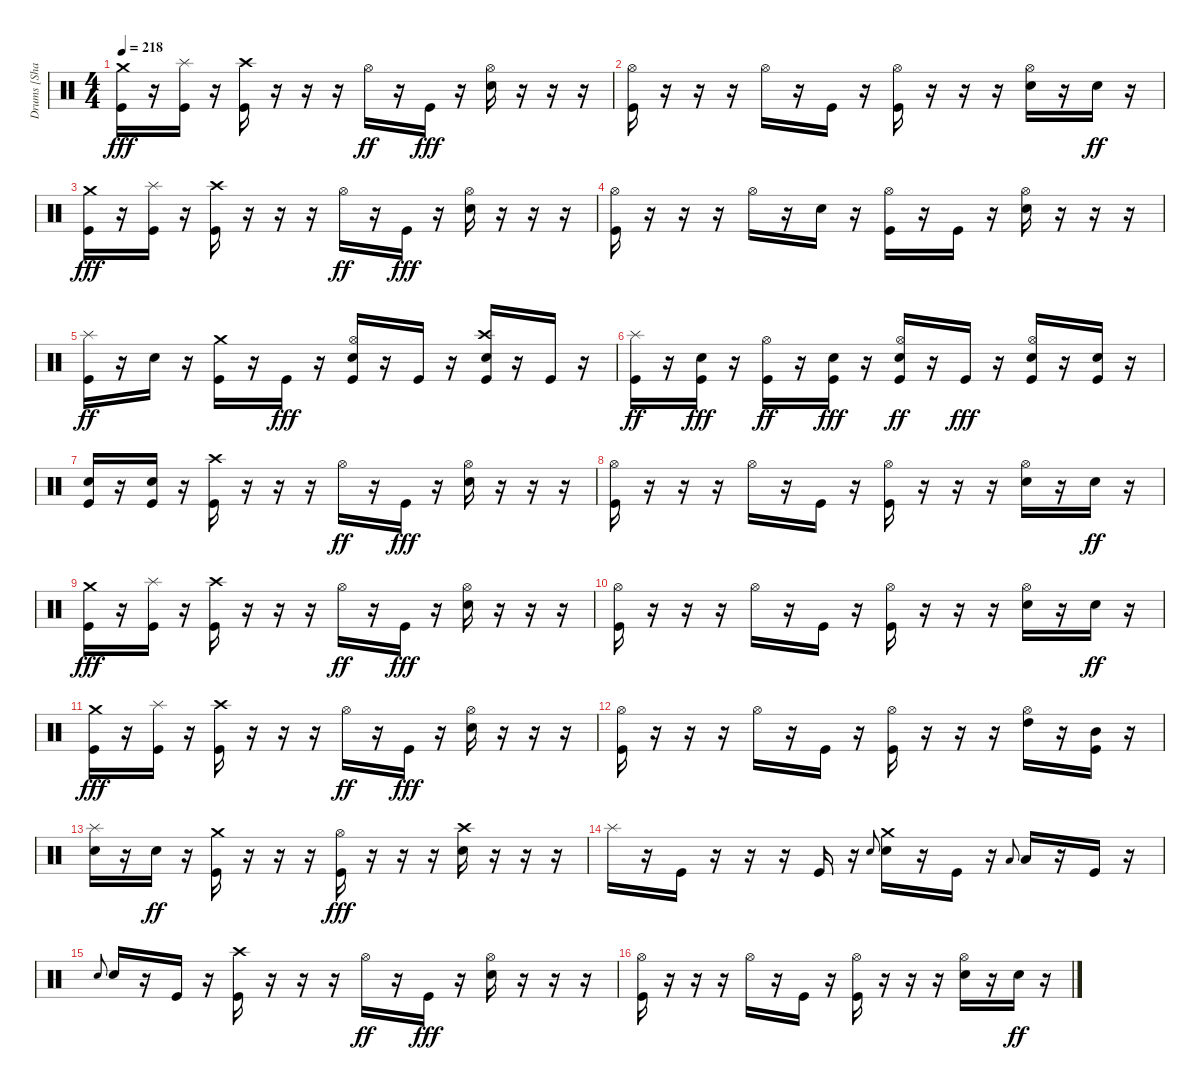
\track ("Drums [Shannon Larkin]" "Drums [Sha") {instrument percussion}
\staff {score}
\articulation defaults
\ts (4 4)
\tempo 218
\clef neutral
\ks c
("Crash medium (hit)" "Kick (hit)").16{dy fff} r.16 ("Splash (hit)" "Kick (hit)").16 r.16 ("Crash high (hit)" "Kick (hit)").16 r.16 r.16 r.16 "Hi-Hat (open)".16{dy ff} r.16 "Kick (hit)".16{dy fff} r.16 ("Hi-Hat (open)" "Electric Snare (hit)").16 r.16 r.16 r.16 |
("Hi-Hat (open)" "Kick (hit)").16 r.16 r.16 r.16 "Hi-Hat (open)".16 r.16 "Kick (hit)".16 r.16 ("Hi-Hat (open)" "Kick (hit)").16 r.16 r.16 r.16 ("Hi-Hat (open)" "Electric Snare (hit)").16 r.16 "Electric Snare (hit)".16{dy ff} r.16 |
("Crash medium (hit)" "Kick (hit)").16{dy fff} r.16 ("Splash (hit)" "Kick (hit)").16 r.16 ("Crash high (hit)" "Kick (hit)").16 r.16 r.16 r.16 "Hi-Hat (open)".16{dy ff} r.16 "Kick (hit)".16{dy fff} r.16 ("Hi-Hat (open)" "Electric Snare (hit)").16 r.16 r.16 r.16 |
("Hi-Hat (open)" "Kick (hit)").16 r.16 r.16 r.16 "Hi-Hat (open)".16 r.16 "Electric Snare (hit)".16 r.16 ("Hi-Hat (open)" "Kick (hit)").16 r.16 "Kick (hit)".16 r.16 ("Hi-Hat (open)" "Electric Snare (hit)").16 r.16 r.16 r.16 |
("Splash (hit)" "Kick (hit)").16{dy ff} r.16 "Electric Snare (hit)".16 r.16 ("Crash medium (hit)" "Kick (hit)").16 r.16 "Kick (hit)".16{dy fff} r.16 ("Hi-Hat (open)" "Electric Snare (hit)" "Kick (hit)").16 r.16 "Kick (hit)".16 r.16 ("Crash high (hit)" "Electric Snare (hit)" "Kick (hit)").16 r.16 "Kick (hit)".16 r.16 |
("Splash (hit)" "Kick (hit)").16{dy ff} r.16 ("Electric Snare (hit)" "Kick (hit)").16{dy fff} r.16 ("Hi-Hat (open)" "Kick (hit)").16{dy ff} r.16 ("Electric Snare (hit)" "Kick (hit)").16{dy fff} r.16 ("Hi-Hat (open)" "Electric Snare (hit)" "Kick (hit)").16{dy ff} r.16 "Kick (hit)".16{dy fff} r.16 ("Hi-Hat (open)" "Electric Snare (hit)" "Kick (hit)").16 r.16 ("Electric Snare (hit)" "Kick (hit)").16 r.16 |
("Electric Snare (hit)" "Kick (hit)").16 r.16 ("Electric Snare (hit)" "Kick (hit)").16 r.16 ("Crash high (hit)" "Kick (hit)").16 r.16 r.16 r.16 "Hi-Hat (open)".16{dy ff} r.16 "Kick (hit)".16{dy fff} r.16 ("Hi-Hat (open)" "Electric Snare (hit)").16 r.16 r.16 r.16 |
("Hi-Hat (open)" "Kick (hit)").16 r.16 r.16 r.16 "Hi-Hat (open)".16 r.16 "Kick (hit)".16 r.16 ("Hi-Hat (open)" "Kick (hit)").16 r.16 r.16 r.16 ("Hi-Hat (open)" "Electric Snare (hit)").16 r.16 "Electric Snare (hit)".16{dy ff} r.16 |
("Crash medium (hit)" "Kick (hit)").16{dy fff} r.16 ("Splash (hit)" "Kick (hit)").16 r.16 ("Crash high (hit)" "Kick (hit)").16 r.16 r.16 r.16 "Hi-Hat (open)".16{dy ff} r.16 "Kick (hit)".16{dy fff} r.16 ("Hi-Hat (open)" "Electric Snare (hit)").16 r.16 r.16 r.16 |
("Hi-Hat (open)" "Kick (hit)").16 r.16 r.16 r.16 "Hi-Hat (open)".16 r.16 "Kick (hit)".16 r.16 ("Hi-Hat (open)" "Kick (hit)").16 r.16 r.16 r.16 ("Hi-Hat (open)" "Electric Snare (hit)").16 r.16 "Electric Snare (hit)".16{dy ff} r.16 |
("Crash medium (hit)" "Kick (hit)").16{dy fff} r.16 ("Splash (hit)" "Kick (hit)").16 r.16 ("Crash high (hit)" "Kick (hit)").16 r.16 r.16 r.16 "Hi-Hat (open)".16{dy ff} r.16 "Kick (hit)".16{dy fff} r.16 ("Hi-Hat (open)" "Electric Snare (hit)").16 r.16 r.16 r.16 |
("Hi-Hat (open)" "Kick (hit)").16 r.16 r.16 r.16 "Hi-Hat (open)".16 r.16 "Kick (hit)".16 r.16 ("Hi-Hat (open)" "Kick (hit)").16 r.16 r.16 r.16 ("Hi-Hat (open)" "High Tom (hit)").16 r.16 ("Mid Tom (hit)" "Kick (hit)").16 r.16 |
("Splash (hit)" "Electric Snare (hit)").16 r.16 "Electric Snare (hit)".16{dy ff} r.16 ("Crash medium (hit)" "Kick (hit)").16 r.16 r.16 r.16 ("Hi-Hat (open)" "Kick (hit)").16{dy fff} r.16 r.16 r.16 ("Crash high (hit)" "Electric Snare (hit)").16 r.16 r.16 r.16 |
"Splash (hit)".16 r.16 "Kick (hit)".16 r.16 r.16 r.16 "Kick (hit)".16 r.16 "Electric Snare (hit)".8{gr onbeat} ("Crash medium (hit)" "Electric Snare (hit)").16 r.16 "Kick (hit)".16 r.16 "Low Tom (hit)".8{gr onbeat} "Low Tom (hit)".16 r.16 "Kick (hit)".16 r.16 |
"Electric Snare (hit)".8{gr onbeat} "Electric Snare (hit)".16 r.16 "Kick (hit)".16 r.16 ("Crash high (hit)" "Kick (hit)").16 r.16 r.16 r.16 "Hi-Hat (open)".16{dy ff} r.16 "Kick (hit)".16{dy fff} r.16 ("Hi-Hat (open)" "Electric Snare (hit)").16 r.16 r.16 r.16 |
("Hi-Hat (open)" "Kick (hit)").16 r.16 r.16 r.16 "Hi-Hat (open)".16 r.16 "Kick (hit)".16 r.16 ("Hi-Hat (open)" "Kick (hit)").16 r.16 r.16 r.16 ("Hi-Hat (open)" "Electric Snare (hit)").16 r.16 "Electric Snare (hit)".16{dy ff} r.16
